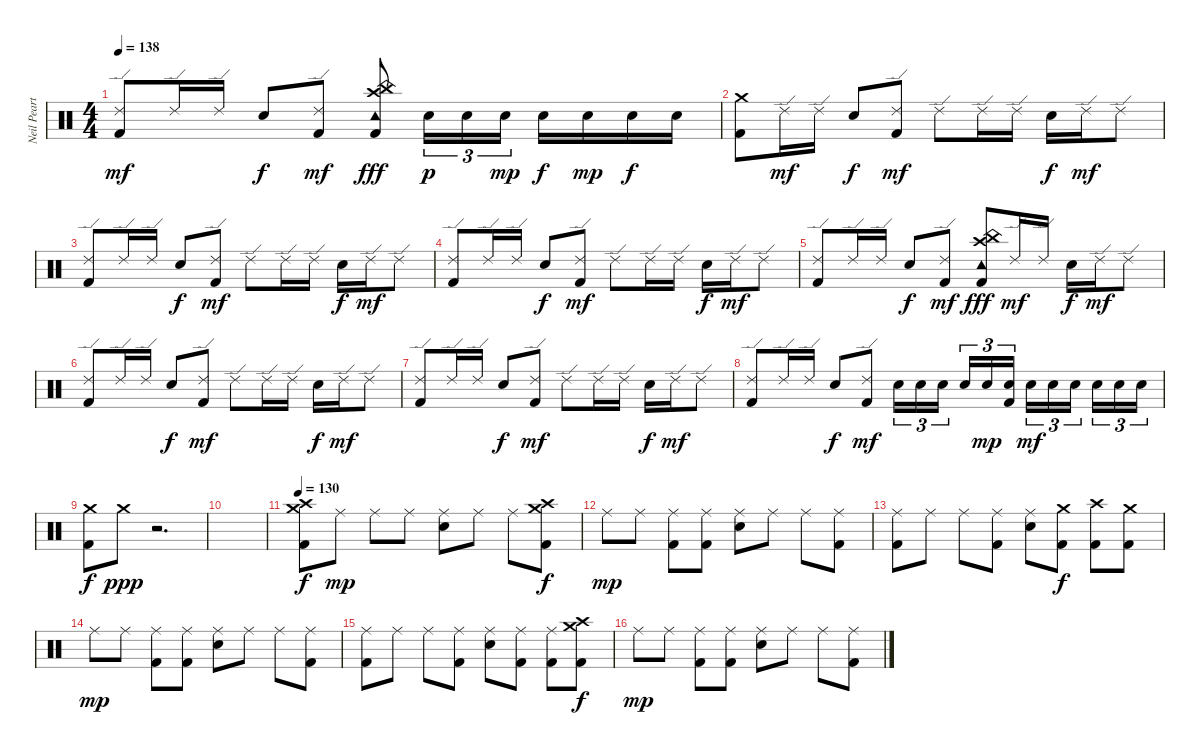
\track ("Neil Peart, Percusión" "Neil Peart") {instrument percussion}
\staff {score}
\articulation defaults
\ts (4 4)
\tempo 138
\clef neutral
\ks c
("Ride (edge) 2" "Kick (hit) 2").8{dy mf} "Ride (edge) 2".16 "Ride (edge) 2".16 "Electric Snare (hit)".8{dy f} ("Ride (edge) 2" "Kick (hit) 2").8{dy mf} ("Crash high (hit)" "China (hit)" "Tambourine (hit)" "Kick (hit) 2").8{dy fff} "Electric Snare (hit)".16{tu (3 2) dy p} "Electric Snare (hit)".16{tu (3 2)} "Electric Snare (hit)".16{tu (3 2) dy mp} "Electric Snare (hit)".16{dy f} "Electric Snare (hit)".16{dy mp} "Electric Snare (hit)".16{dy f} "Electric Snare (hit)".16 |
("Crash medium (hit)" "Kick (hit) 2").8 "Ride (edge) 2".16{dy mf} "Ride (edge) 2".16 "Electric Snare (hit)".8{dy f} ("Ride (edge) 2" "Kick (hit) 2").8{dy mf} "Ride (edge) 2".8 "Ride (edge) 2".16 "Ride (edge) 2".16 "Electric Snare (hit)".16{dy f} "Ride (edge) 2".16{dy mf} "Ride (edge) 2".8 |
("Ride (edge) 2" "Kick (hit) 2").8 "Ride (edge) 2".16 "Ride (edge) 2".16 "Electric Snare (hit)".8{dy f} ("Ride (edge) 2" "Kick (hit) 2").8{dy mf} "Ride (edge) 2".8 "Ride (edge) 2".16 "Ride (edge) 2".16 "Electric Snare (hit)".16{dy f} "Ride (edge) 2".16{dy mf} "Ride (edge) 2".8 |
("Ride (edge) 2" "Kick (hit) 2").8 "Ride (edge) 2".16 "Ride (edge) 2".16 "Electric Snare (hit)".8{dy f} ("Ride (edge) 2" "Kick (hit) 2").8{dy mf} "Ride (edge) 2".8 "Ride (edge) 2".16 "Ride (edge) 2".16 "Electric Snare (hit)".16{dy f} "Ride (edge) 2".16{dy mf} "Ride (edge) 2".8 |
("Ride (edge) 2" "Kick (hit) 2").8 "Ride (edge) 2".16 "Ride (edge) 2".16 "Electric Snare (hit)".8{dy f} ("Ride (edge) 2" "Kick (hit) 2").8{dy mf} ("Crash high (hit)" "China (hit)" "Tambourine (hit)" "Kick (hit) 2").8{dy fff} "Ride (edge) 2".16{dy mf} "Ride (edge) 2".16 "Electric Snare (hit)".16{dy f} "Ride (edge) 2".16{dy mf} "Ride (edge) 2".8 |
("Ride (edge) 2" "Kick (hit) 2").8 "Ride (edge) 2".16 "Ride (edge) 2".16 "Electric Snare (hit)".8{dy f} ("Ride (edge) 2" "Kick (hit) 2").8{dy mf} "Ride (edge) 2".8 "Ride (edge) 2".16 "Ride (edge) 2".16 "Electric Snare (hit)".16{dy f} "Ride (edge) 2".16{dy mf} "Ride (edge) 2".8 |
("Ride (edge) 2" "Kick (hit) 2").8 "Ride (edge) 2".16 "Ride (edge) 2".16 "Electric Snare (hit)".8{dy f} ("Ride (edge) 2" "Kick (hit) 2").8{dy mf} "Ride (edge) 2".8 "Ride (edge) 2".16 "Ride (edge) 2".16 "Electric Snare (hit)".16{dy f} "Ride (edge) 2".16{dy mf} "Ride (edge) 2".8 |
("Ride (edge) 2" "Kick (hit) 2").8 "Ride (edge) 2".16 "Ride (edge) 2".16 "Electric Snare (hit)".8{dy f} ("Ride (edge) 2" "Kick (hit) 2").8{dy mf} "Electric Snare (hit)".16{tu (3 2)} "Electric Snare (hit)".16{tu (3 2)} "Electric Snare (hit)".16{tu (3 2)} "Electric Snare (hit)".16{tu (3 2)} "Electric Snare (hit)".16{tu (3 2) dy mp} ("Electric Snare (hit)" "Kick (hit) 2").16{tu (3 2)} "Electric Snare (hit)".16{tu (3 2) dy mf} "Electric Snare (hit)".16{tu (3 2)} "Electric Snare (hit)".16{tu (3 2)} "Electric Snare (hit)".16{tu (3 2)} "Electric Snare (hit)".16{tu (3 2)} "Electric Snare (hit)".16{tu (3 2)} |
("Crash medium (hit)" "Kick (hit) 2").8{dy f} "Crash medium (hit)".8{dy ppp} r.2{d} |
|
\tempo 130
("Crash medium (hit)" "Crash high (hit)" "Kick (hit) 2").8{dy f} "Ride (middle)".8{dy mp} "Ride (middle)".8 "Ride (middle)".8 ("Ride (middle)" "Electric Snare (hit)").8 "Ride (middle)".8 "Ride (middle)".8 ("Crash medium (hit)" "Crash high (hit)" "Kick (hit) 2").8{dy f} |
"Ride (middle)".8{dy mp} "Ride (middle)".8 ("Ride (middle)" "Kick (hit) 2").8 ("Ride (middle)" "Kick (hit) 2").8 ("Ride (middle)" "Electric Snare (hit)").8 "Ride (middle)".8 "Ride (middle)".8 ("Ride (middle)" "Kick (hit) 2").8 |
("Ride (middle)" "Kick (hit) 2").8 "Ride (middle)".8 "Ride (middle)".8 ("Ride (middle)" "Kick (hit) 2").8 ("Ride (middle)" "Electric Snare (hit)").8 ("Crash medium (hit)" "Kick (hit) 2").8{dy f} ("Crash high (hit)" "Kick (hit) 2").8 ("Crash medium (hit)" "Kick (hit) 2").8 |
"Ride (middle)".8{dy mp} "Ride (middle)".8 ("Ride (middle)" "Kick (hit) 2").8 ("Ride (middle)" "Kick (hit) 2").8 ("Ride (middle)" "Electric Snare (hit)").8 "Ride (middle)".8 "Ride (middle)".8 ("Ride (middle)" "Kick (hit) 2").8 |
("Ride (middle)" "Kick (hit) 2").8 "Ride (middle)".8 "Ride (middle)".8 ("Ride (middle)" "Kick (hit) 2").8 ("Ride (middle)" "Electric Snare (hit)").8 ("Ride (middle)" "Kick (hit) 2").8 ("Ride (middle)" "Kick (hit) 2").8 ("Crash medium (hit)" "Crash high (hit)" "Kick (hit) 2").8{dy f} |
"Ride (middle)".8{dy mp} "Ride (middle)".8 ("Ride (middle)" "Kick (hit) 2").8 ("Ride (middle)" "Kick (hit) 2").8 ("Ride (middle)" "Electric Snare (hit)").8 "Ride (middle)".8 "Ride (middle)".8 ("Ride (middle)" "Kick (hit) 2").8
